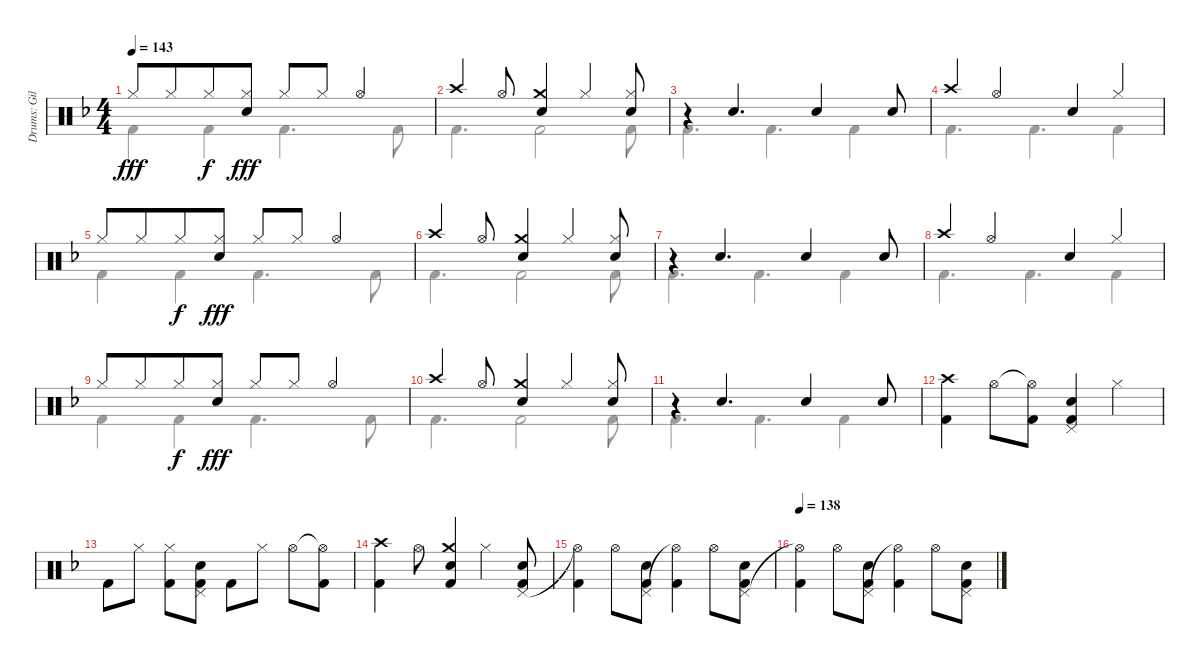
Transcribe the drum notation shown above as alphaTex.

\track ("Drums: Gil" "Drums: Gil") {instrument percussion}
\staff {score}
\articulation defaults
\voice
\ts (4 4)
\tempo 143
\clef neutral
\ks f "Hi-Hat (closed)".8{dy fff} "Hi-Hat (closed)".8{beam merge} "Hi-Hat (closed)".8{dy f}
("Hi-Hat (closed)" "Snare (hit) 2").8{dy fff} "Hi-Hat (closed)".8 "Hi-Hat (closed)".8 "Hi-Hat (open)".4 |
"Crash high (hit)".4 "Hi-Hat (open)".8 ("Crash medium (hit)" "Snare (hit) 2").4 "Hi-Hat (closed)".4 ("Hi-Hat (closed)" "Snare (hit) 2").8 |
r.4 "Snare (hit) 2".4{d} "Snare (hit) 2".4 "Snare (hit) 2".8 |
"Crash high (hit)".4 "Hi-Hat (open)".4 "Snare (hit) 2".4 "Hi-Hat (closed)".4 |
"Hi-Hat (closed)".8 "Hi-Hat (closed)".8{beam merge} "Hi-Hat (closed)".8{dy f} ("Hi-Hat (closed)" "Snare (hit) 2").8{dy fff} "Hi-Hat (closed)".8 "Hi-Hat (closed)".8 "Hi-Hat (open)".4 |
"Crash high (hit)".4 "Hi-Hat (open)".8 ("Crash medium (hit)" "Snare (hit) 2").4 "Hi-Hat (closed)".4 ("Hi-Hat (closed)" "Snare (hit) 2").8 |
r.4 "Snare (hit) 2".4{d} "Snare (hit) 2".4 "Snare (hit) 2".8 |
"Crash high (hit)".4 "Hi-Hat (open)".4 "Snare (hit) 2".4 "Hi-Hat (closed)".4 |
"Hi-Hat (closed)".8 "Hi-Hat (closed)".8{beam merge} "Hi-Hat (closed)".8{dy f} ("Hi-Hat (closed)" "Snare (hit) 2").8{dy fff} "Hi-Hat (closed)".8 "Hi-Hat (closed)".8 "Hi-Hat (open)".4 |
"Crash high (hit)".4 "Hi-Hat (open)".8 ("Crash medium (hit)" "Snare (hit) 2").4 "Hi-Hat (closed)".4 ("Hi-Hat (closed)" "Snare (hit) 2").8 |
r.4 "Snare (hit) 2".4{d} "Snare (hit) 2".4 "Snare (hit) 2".8 |
("Crash high (hit)" "Kick (hit) 2").4 "Hi-Hat (open)".8 ("Hi-Hat (open)"{t} "Kick (hit) 2").8 ("Pedal Hi-Hat (hit)" "Snare (hit) 2" "Kick (hit) 2").4 "Hi-Hat (closed)".4 |
"Kick (hit) 2".8 "Hi-Hat (closed)".8 ("Hi-Hat (closed)" "Kick (hit) 2").8 ("Pedal Hi-Hat (hit)" "Snare (hit) 2" "Kick (hit) 2").8 "Kick (hit) 2".8 "Hi-Hat (closed)".8 "Hi-Hat (open)".8 ("Hi-Hat (open)"{t} "Kick (hit) 2").8 |
("Crash high (hit)" "Kick (hit) 2").4 "Hi-Hat (open)".8 ("Crash medium (hit)" "Snare (hit) 2" "Kick (hit) 2").4 "Hi-Hat (closed)".4 ("Pedal Hi-Hat (hit)" "Snare (hit) 2" "Kick (hit) 2").8 |
("Hi-Hat (open)"{t} "Kick (hit) 2").4 "Hi-Hat (open)".8 ("Pedal Hi-Hat (hit)" "Snare (hit) 2" "Kick (hit) 2").8 ("Hi-Hat (open)"{t} "Kick (hit) 2").4 "Hi-Hat (open)".8 ("Pedal Hi-Hat (hit)" "Snare (hit) 2" "Kick (hit) 2").8 |
\tempo 138
("Hi-Hat (open)"{t} "Kick (hit) 2").4 "Hi-Hat (open)".8 ("Pedal Hi-Hat (hit)" "Snare (hit) 2" "Kick (hit) 2").8 ("Hi-Hat (open)"{t} "Kick (hit) 2").4 "Hi-Hat (open)".8 ("Pedal Hi-Hat (hit)" "Snare (hit) 2" "Kick (hit) 2").8
\voice
\clef neutral
\ottava regular
\simile none
\ks f "Kick (hit) 2".4{dy fff} "Kick (hit) 2".4 "Kick (hit) 2".4{d} "Kick (hit) 2".8
|
"Kick (hit) 2".4{d} "Kick (hit) 2".2 "Kick (hit) 2".8 |
"Kick (hit) 2".4{d} "Kick (hit) 2".4{d} "Kick (hit) 2".4 |
"Kick (hit) 2".4{d} "Kick (hit) 2".4{d} "Kick (hit) 2".4 |
"Kick (hit) 2".4 "Kick (hit) 2".4 "Kick (hit) 2".4{d} "Kick (hit) 2".8 |
"Kick (hit) 2".4{d} "Kick (hit) 2".2 "Kick (hit) 2".8 |
"Kick (hit) 2".4{d} "Kick (hit) 2".4{d} "Kick (hit) 2".4 |
"Kick (hit) 2".4{d} "Kick (hit) 2".4{d} "Kick (hit) 2".4 |
"Kick (hit) 2".4 "Kick (hit) 2".4 "Kick (hit) 2".4{d} "Kick (hit) 2".8 |
"Kick (hit) 2".4{d} "Kick (hit) 2".2 "Kick (hit) 2".8 |
"Kick (hit) 2".4{d} "Kick (hit) 2".4{d} "Kick (hit) 2".4 |
|
|
|
|
